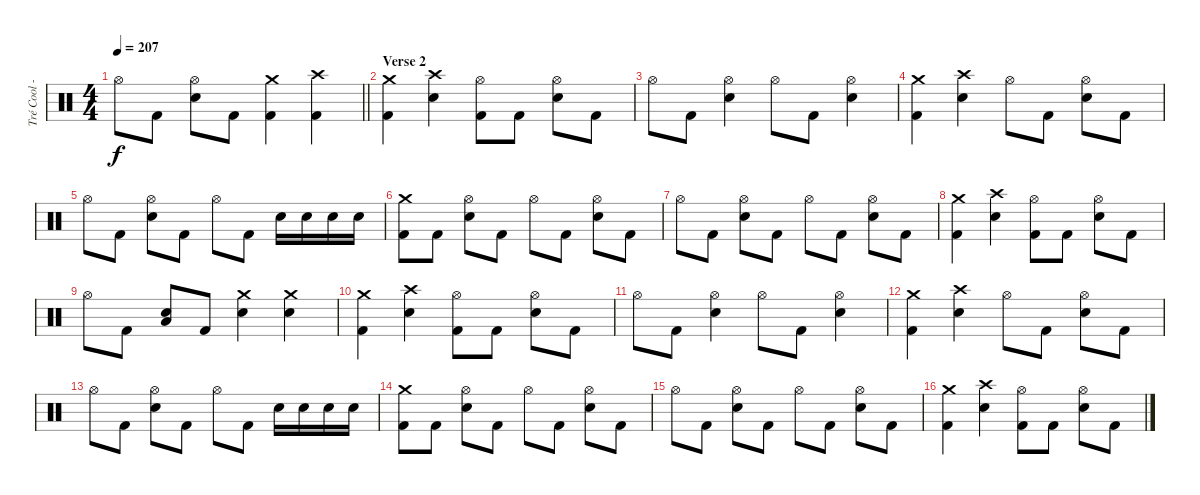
\track ("Tré Cool - Drums" "Tré Cool -") {instrument percussion}
\staff {score}
\articulation defaults
\ts (4 4)
\tempo 207
\clef neutral
\barLineRight lightlight
\ks c "Hi-Hat (open)".8{dy f} "Kick (hit) 2".8
("Hi-Hat (open)" "Electric Snare (hit)").8 "Kick (hit) 2".8 ("Crash medium (hit)" "Kick (hit) 2").4 ("Crash high (hit)" "Kick (hit) 2").4 |
\section ("" "Verse 2")
("Crash medium (hit)" "Kick (hit) 2").4 ("Crash high (hit)" "Electric Snare (hit)").4 ("Hi-Hat (open)" "Kick (hit) 2").8 "Kick (hit) 2".8 ("Hi-Hat (open)" "Electric Snare (hit)").8 "Kick (hit) 2".8 |
"Hi-Hat (open)".8 "Kick (hit) 2".8 ("Hi-Hat (open)" "Electric Snare (hit)").4 "Hi-Hat (open)".8 "Kick (hit) 2".8 ("Hi-Hat (open)" "Electric Snare (hit)").4 |
("Crash medium (hit)" "Kick (hit) 2").4 ("Crash high (hit)" "Electric Snare (hit)").4 "Hi-Hat (open)".8 "Kick (hit) 2".8 ("Hi-Hat (open)" "Electric Snare (hit)").8 "Kick (hit) 2".8 |
"Hi-Hat (open)".8 "Kick (hit) 2".8 ("Hi-Hat (open)" "Electric Snare (hit)").8 "Kick (hit) 2".8 "Hi-Hat (open)".8 "Kick (hit) 2".8 "Electric Snare (hit)".16 "Electric Snare (hit)".16 "Electric Snare (hit)".16 "Electric Snare (hit)".16 |
("Crash medium (hit)" "Kick (hit) 2").8 "Kick (hit) 2".8 ("Hi-Hat (open)" "Electric Snare (hit)").8 "Kick (hit) 2".8 "Hi-Hat (open)".8 "Kick (hit) 2".8 ("Hi-Hat (open)" "Electric Snare (hit)").8 "Kick (hit) 2".8 |
"Hi-Hat (open)".8 "Kick (hit) 2".8 ("Hi-Hat (open)" "Electric Snare (hit)").8 "Kick (hit) 2".8 "Hi-Hat (open)".8 "Kick (hit) 2".8 ("Hi-Hat (open)" "Electric Snare (hit)").8 "Kick (hit) 2".8 |
("Crash medium (hit)" "Kick (hit) 2").4 ("Crash high (hit)" "Electric Snare (hit)").4 ("Hi-Hat (open)" "Kick (hit) 2").8 "Kick (hit) 2".8 ("Hi-Hat (open)" "Electric Snare (hit)").8 "Kick (hit) 2".8 |
"Hi-Hat (open)".8 "Kick (hit) 2".8 ("Low Floor Tom (hit)" "Electric Snare (hit)").8 "Kick (hit) 2".8 ("Crash medium (hit)" "Electric Snare (hit)").4 ("Crash medium (hit)" "Electric Snare (hit)").4 |
("Crash medium (hit)" "Kick (hit) 2").4 ("Crash high (hit)" "Electric Snare (hit)").4 ("Hi-Hat (open)" "Kick (hit) 2").8 "Kick (hit) 2".8 ("Hi-Hat (open)" "Electric Snare (hit)").8 "Kick (hit) 2".8 |
"Hi-Hat (open)".8 "Kick (hit) 2".8 ("Hi-Hat (open)" "Electric Snare (hit)").4 "Hi-Hat (open)".8 "Kick (hit) 2".8 ("Hi-Hat (open)" "Electric Snare (hit)").4 |
("Crash medium (hit)" "Kick (hit) 2").4 ("Crash high (hit)" "Electric Snare (hit)").4 "Hi-Hat (open)".8 "Kick (hit) 2".8 ("Hi-Hat (open)" "Electric Snare (hit)").8 "Kick (hit) 2".8 |
"Hi-Hat (open)".8 "Kick (hit) 2".8 ("Hi-Hat (open)" "Electric Snare (hit)").8 "Kick (hit) 2".8 "Hi-Hat (open)".8 "Kick (hit) 2".8 "Electric Snare (hit)".16 "Electric Snare (hit)".16 "Electric Snare (hit)".16 "Electric Snare (hit)".16 |
("Crash medium (hit)" "Kick (hit) 2").8 "Kick (hit) 2".8 ("Hi-Hat (open)" "Electric Snare (hit)").8 "Kick (hit) 2".8 "Hi-Hat (open)".8 "Kick (hit) 2".8 ("Hi-Hat (open)" "Electric Snare (hit)").8 "Kick (hit) 2".8 |
"Hi-Hat (open)".8 "Kick (hit) 2".8 ("Hi-Hat (open)" "Electric Snare (hit)").8 "Kick (hit) 2".8 "Hi-Hat (open)".8 "Kick (hit) 2".8 ("Hi-Hat (open)" "Electric Snare (hit)").8 "Kick (hit) 2".8 |
("Crash medium (hit)" "Kick (hit) 2").4 ("Crash high (hit)" "Electric Snare (hit)").4 ("Hi-Hat (open)" "Kick (hit) 2").8 "Kick (hit) 2".8 ("Hi-Hat (open)" "Electric Snare (hit)").8 "Kick (hit) 2".8
